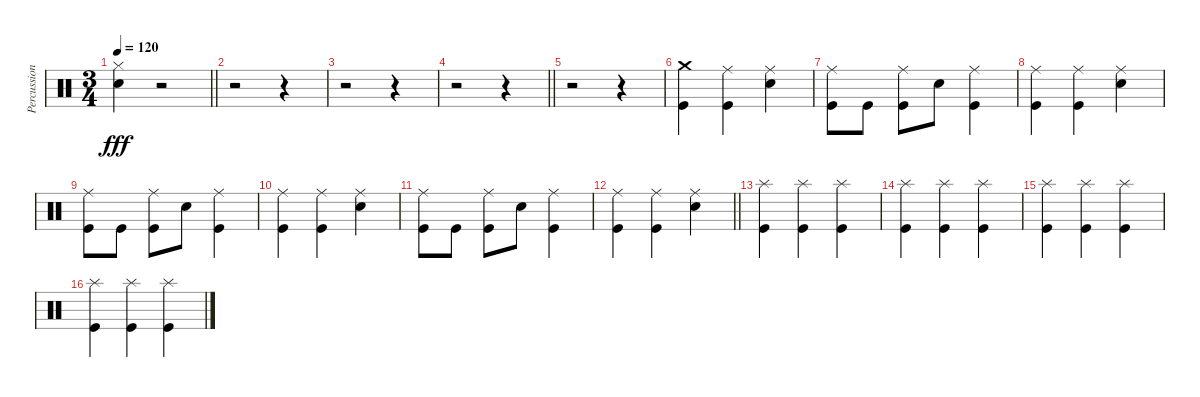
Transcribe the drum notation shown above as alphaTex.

\track ("Percussion" "Percussion") {instrument percussion}
\staff {score}
\articulation defaults
\ts (3 4)
\tempo 120
\clef neutral
\barLineRight lightlight
\ks c
("Hi-Hat (closed)" "Electric Snare (hit)").4{dy fff} r.2 |
r.2 r.4 |
r.2 r.4 |
\barLineRight lightlight
r.2 r.4 |
r.2 r.4 |
("Crash medium (hit)" "Kick (hit)").4 ("Ride (middle)" "Kick (hit)").4 ("Ride (middle)" "Electric Snare (hit)").4 |
("Ride (middle)" "Kick (hit)").8 "Kick (hit)".8 ("Ride (middle)" "Kick (hit)").8 "Electric Snare (hit)".8 ("Ride (middle)" "Kick (hit)").4 |
("Ride (middle)" "Kick (hit)").4 ("Ride (middle)" "Kick (hit)").4 ("Ride (middle)" "Electric Snare (hit)").4 |
("Ride (middle)" "Kick (hit)").8 "Kick (hit)".8 ("Ride (middle)" "Kick (hit)").8 "Electric Snare (hit)".8 ("Ride (middle)" "Kick (hit)").4 |
("Ride (middle)" "Kick (hit)").4 ("Ride (middle)" "Kick (hit)").4 ("Ride (middle)" "Electric Snare (hit)").4 |
("Ride (middle)" "Kick (hit)").8 "Kick (hit)".8 ("Ride (middle)" "Kick (hit)").8 "Electric Snare (hit)".8 ("Ride (middle)" "Kick (hit)").4 |
\barLineRight lightlight
("Ride (middle)" "Kick (hit)").4 ("Ride (middle)" "Kick (hit)").4 ("Ride (middle)" "Electric Snare (hit)").4 |
("Splash (hit)" "Kick (hit)").4 ("Splash (hit)" "Kick (hit)").4 ("Splash (hit)" "Kick (hit)").4 |
("Splash (hit)" "Kick (hit)").4 ("Splash (hit)" "Kick (hit)").4 ("Splash (hit)" "Kick (hit)").4 |
("Splash (hit)" "Kick (hit)").4 ("Splash (hit)" "Kick (hit)").4 ("Splash (hit)" "Kick (hit)").4 |
("Splash (hit)" "Kick (hit)").4 ("Splash (hit)" "Kick (hit)").4 ("Splash (hit)" "Kick (hit)").4
